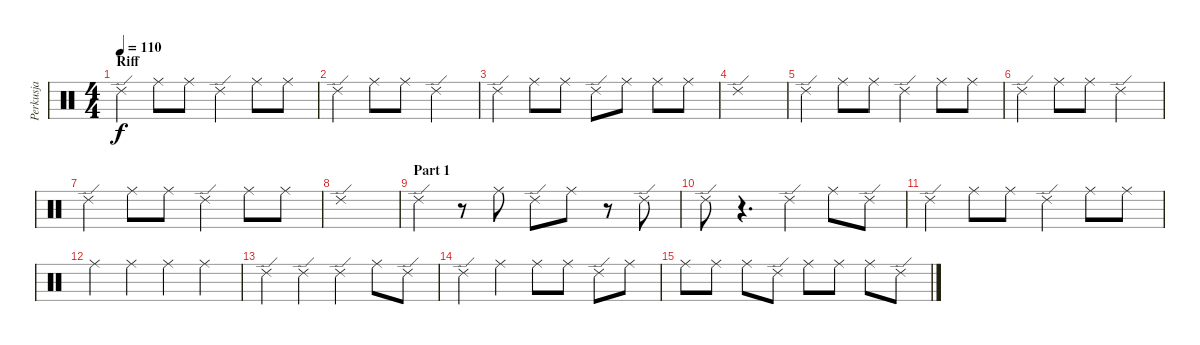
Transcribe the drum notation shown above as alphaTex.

\track ("Perkusja" "Perkusja") {instrument percussion}
\staff {score}
\articulation defaults
\ts (4 4)
\section ("" "Riff")
\tempo 110
\clef neutral
\ks c "Ride (edge) 2".4{dy f} "Ride (middle)".8 "Ride (middle)".8 "Ride (edge) 2".4 "Ride (middle)".8 "Ride (middle)".8
|
"Ride (edge) 2".4 "Ride (middle)".8 "Ride (middle)".8 "Ride (edge) 2".2 |
"Ride (edge) 2".4 "Ride (middle)".8 "Ride (middle)".8 "Ride (edge) 2".8 "Ride (middle)".8 "Ride (middle)".8 "Ride (middle)".8 |
"Ride (edge) 2".1 |
"Ride (edge) 2".4 "Ride (middle)".8 "Ride (middle)".8 "Ride (edge) 2".4 "Ride (middle)".8 "Ride (middle)".8 |
"Ride (edge) 2".4 "Ride (middle)".8 "Ride (middle)".8 "Ride (edge) 2".2 |
"Ride (edge) 2".4 "Ride (middle)".8 "Ride (middle)".8 "Ride (edge) 2".4 "Ride (middle)".8 "Ride (middle)".8 |
"Ride (edge) 2".1 |
\section ("" "Part 1")
"Ride (edge) 2".4 r.8 "Ride (middle)".8 "Ride (edge) 2".8 "Ride (middle)".8 r.8 "Ride (edge) 2".8 |
"Ride (edge) 2".8 r.4{d} "Ride (edge) 2".4 "Ride (middle)".8 "Ride (edge) 2".8 |
"Ride (edge) 2".4 "Ride (middle)".8 "Ride (middle)".8 "Ride (edge) 2".4 "Ride (middle)".8 "Ride (middle)".8 |
"Ride (middle)".4 "Ride (middle)".4 "Ride (middle)".4 "Ride (middle)".4 |
"Ride (edge) 2".4 "Ride (edge) 2".4 "Ride (edge) 2".4 "Ride (middle)".8 "Ride (edge) 2".8 |
"Ride (edge) 2".4 "Ride (middle)".4 "Ride (middle)".8 "Ride (middle)".8 "Ride (edge) 2".8 "Ride (middle)".8 |
"Ride (middle)".8 "Ride (middle)".8 "Ride (middle)".8 "Ride (edge) 2".8 "Ride (middle)".8 "Ride (middle)".8 "Ride (middle)".8 "Ride (edge) 2".8
